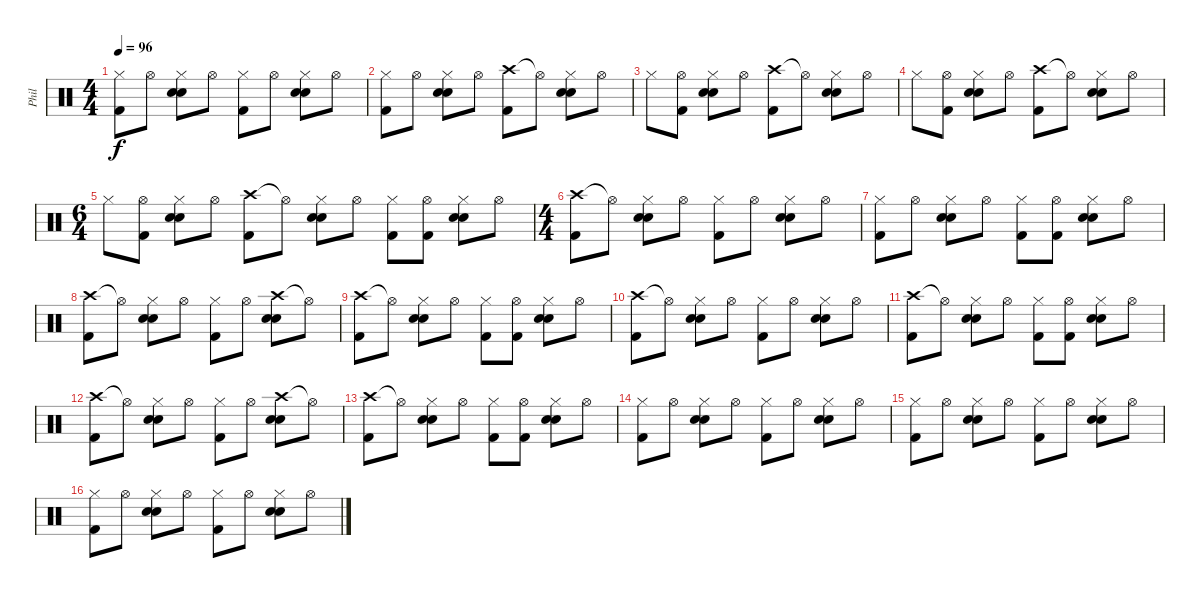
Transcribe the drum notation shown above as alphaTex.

\track ("Phil" "Phil") {instrument percussion}
\staff {score}
\articulation defaults
\ts (4 4)
\tempo 96
\clef neutral
\ks c
("Hi-Hat (closed)" "Kick (hit) 2").8{dy f} "Hi-Hat (open)".8 ("Hi-Hat (closed)" "Snare (hit) 2" "Electric Snare (hit)").8 "Hi-Hat (open)".8 ("Hi-Hat (closed)" "Kick (hit) 2").8 "Hi-Hat (open)".8 ("Hi-Hat (closed)" "Snare (hit) 2" "Electric Snare (hit)").8 "Hi-Hat (open)".8 |
("Hi-Hat (closed)" "Kick (hit) 2").8 "Hi-Hat (open)".8 ("Hi-Hat (closed)" "Snare (hit) 2" "Electric Snare (hit)").8 "Hi-Hat (open)".8 ("Crash high (hit)" "Kick (hit) 2").8 "Hi-Hat (open)"{t}.8 ("Hi-Hat (closed)" "Snare (hit) 2" "Electric Snare (hit)").8 "Hi-Hat (open)".8 |
"Hi-Hat (closed)".8 ("Hi-Hat (open)" "Kick (hit) 2").8 ("Hi-Hat (closed)" "Snare (hit) 2" "Electric Snare (hit)").8 "Hi-Hat (open)".8 ("Crash high (hit)" "Kick (hit) 2").8 "Hi-Hat (open)"{t}.8 ("Hi-Hat (closed)" "Snare (hit) 2" "Electric Snare (hit)").8 "Hi-Hat (open)".8 |
"Hi-Hat (closed)".8 ("Hi-Hat (open)" "Kick (hit) 2").8 ("Hi-Hat (closed)" "Snare (hit) 2" "Electric Snare (hit)").8 "Hi-Hat (open)".8 ("Crash high (hit)" "Kick (hit) 2").8 "Hi-Hat (open)"{t}.8 ("Hi-Hat (closed)" "Snare (hit) 2" "Electric Snare (hit)").8 "Hi-Hat (open)".8 |
\ts (6 4)
"Hi-Hat (closed)".8 ("Hi-Hat (open)" "Kick (hit) 2").8 ("Hi-Hat (closed)" "Snare (hit) 2" "Electric Snare (hit)").8 "Hi-Hat (open)".8 ("Crash high (hit)" "Kick (hit) 2").8 "Hi-Hat (open)"{t}.8 ("Hi-Hat (closed)" "Snare (hit) 2" "Electric Snare (hit)").8 "Hi-Hat (open)".8 ("Hi-Hat (closed)" "Kick (hit) 2").8 ("Hi-Hat (open)" "Kick (hit) 2").8 ("Hi-Hat (closed)" "Snare (hit) 2" "Electric Snare (hit)").8 "Hi-Hat (open)".8 |
\ts (4 4)
("Crash high (hit)" "Kick (hit) 2").8 "Hi-Hat (open)"{t}.8 ("Hi-Hat (closed)" "Snare (hit) 2" "Electric Snare (hit)").8 "Hi-Hat (open)".8 ("Hi-Hat (closed)" "Kick (hit) 2").8 "Hi-Hat (open)".8 ("Hi-Hat (closed)" "Snare (hit) 2" "Electric Snare (hit)").8 "Hi-Hat (open)".8 |
("Hi-Hat (closed)" "Kick (hit) 2").8 "Hi-Hat (open)".8 ("Hi-Hat (closed)" "Snare (hit) 2" "Electric Snare (hit)").8 "Hi-Hat (open)".8 ("Hi-Hat (closed)" "Kick (hit) 2").8 ("Hi-Hat (open)" "Kick (hit) 2").8 ("Hi-Hat (closed)" "Snare (hit) 2" "Electric Snare (hit)").8 "Hi-Hat (open)".8 |
("Crash high (hit)" "Kick (hit) 2").8 "Hi-Hat (open)"{t}.8 ("Hi-Hat (closed)" "Snare (hit) 2" "Electric Snare (hit)").8 "Hi-Hat (open)".8 ("Hi-Hat (closed)" "Kick (hit) 2").8 "Hi-Hat (open)".8 ("Crash high (hit)" "Snare (hit) 2" "Electric Snare (hit)").8 "Hi-Hat (open)"{t}.8 |
("Crash high (hit)" "Kick (hit) 2").8 "Hi-Hat (open)"{t}.8 ("Hi-Hat (closed)" "Snare (hit) 2" "Electric Snare (hit)").8 "Hi-Hat (open)".8 ("Hi-Hat (closed)" "Kick (hit) 2").8 ("Hi-Hat (open)" "Kick (hit) 2").8 ("Hi-Hat (closed)" "Snare (hit) 2" "Electric Snare (hit)").8 "Hi-Hat (open)".8 |
("Crash high (hit)" "Kick (hit) 2").8 "Hi-Hat (open)"{t}.8 ("Hi-Hat (closed)" "Snare (hit) 2" "Electric Snare (hit)").8 "Hi-Hat (open)".8 ("Hi-Hat (closed)" "Kick (hit) 2").8 "Hi-Hat (open)".8 ("Hi-Hat (closed)" "Snare (hit) 2" "Electric Snare (hit)").8 "Hi-Hat (open)".8 |
("Crash high (hit)" "Kick (hit) 2").8 "Hi-Hat (open)"{t}.8 ("Hi-Hat (closed)" "Snare (hit) 2" "Electric Snare (hit)").8 "Hi-Hat (open)".8 ("Hi-Hat (closed)" "Kick (hit) 2").8 ("Hi-Hat (open)" "Kick (hit) 2").8 ("Hi-Hat (closed)" "Snare (hit) 2" "Electric Snare (hit)").8 "Hi-Hat (open)".8 |
("Crash high (hit)" "Kick (hit) 2").8 "Hi-Hat (open)"{t}.8 ("Hi-Hat (closed)" "Snare (hit) 2" "Electric Snare (hit)").8 "Hi-Hat (open)".8 ("Hi-Hat (closed)" "Kick (hit) 2").8 "Hi-Hat (open)".8 ("Crash high (hit)" "Snare (hit) 2" "Electric Snare (hit)").8 "Hi-Hat (open)"{t}.8 |
("Crash high (hit)" "Kick (hit) 2").8 "Hi-Hat (open)"{t}.8 ("Hi-Hat (closed)" "Snare (hit) 2" "Electric Snare (hit)").8 "Hi-Hat (open)".8 ("Hi-Hat (closed)" "Kick (hit) 2").8 ("Hi-Hat (open)" "Kick (hit) 2").8 ("Hi-Hat (closed)" "Snare (hit) 2" "Electric Snare (hit)").8 "Hi-Hat (open)".8 |
("Hi-Hat (closed)" "Kick (hit) 2").8 "Hi-Hat (open)".8 ("Hi-Hat (closed)" "Snare (hit) 2" "Electric Snare (hit)").8 "Hi-Hat (open)".8 ("Hi-Hat (closed)" "Kick (hit) 2").8 "Hi-Hat (open)".8 ("Hi-Hat (closed)" "Snare (hit) 2" "Electric Snare (hit)").8 "Hi-Hat (open)".8 |
("Hi-Hat (closed)" "Kick (hit) 2").8 "Hi-Hat (open)".8 ("Hi-Hat (closed)" "Snare (hit) 2" "Electric Snare (hit)").8 "Hi-Hat (open)".8 ("Hi-Hat (closed)" "Kick (hit) 2").8 "Hi-Hat (open)".8 ("Hi-Hat (closed)" "Snare (hit) 2" "Electric Snare (hit)").8 "Hi-Hat (open)".8 |
("Hi-Hat (closed)" "Kick (hit) 2").8 "Hi-Hat (open)".8 ("Hi-Hat (closed)" "Snare (hit) 2" "Electric Snare (hit)").8 "Hi-Hat (open)".8 ("Hi-Hat (closed)" "Kick (hit) 2").8 "Hi-Hat (open)".8 ("Hi-Hat (closed)" "Snare (hit) 2" "Electric Snare (hit)").8 "Hi-Hat (open)".8
